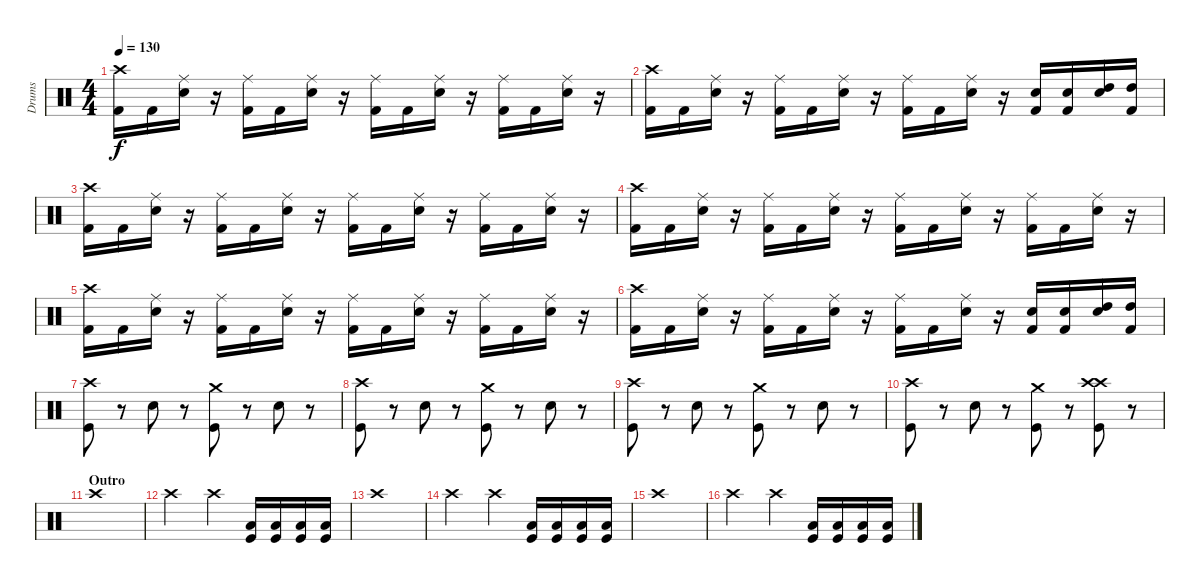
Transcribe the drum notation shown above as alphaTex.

\track ("Drums" "Drums") {instrument percussion}
\staff {score}
\articulation defaults
\ts (4 4)
\tempo 130
\clef neutral
\ks c
("Crash high (hit)" "Kick (hit) 2").16{dy f} "Kick (hit) 2".16 ("Ride (middle)" "Snare (hit) 2").16 r.16 ("Ride (middle)" "Kick (hit) 2").16 "Kick (hit) 2".16 ("Ride (middle)" "Snare (hit) 2").16 r.16 ("Ride (middle)" "Kick (hit) 2").16 "Kick (hit) 2".16 ("Ride (middle)" "Snare (hit) 2").16 r.16 ("Ride (middle)" "Kick (hit) 2").16 "Kick (hit) 2".16 ("Ride (middle)" "Snare (hit) 2").16 r.16 |
("Crash high (hit)" "Kick (hit) 2").16 "Kick (hit) 2".16 ("Ride (middle)" "Snare (hit) 2").16 r.16 ("Ride (middle)" "Kick (hit) 2").16 "Kick (hit) 2".16 ("Ride (middle)" "Snare (hit) 2").16 r.16 ("Ride (middle)" "Kick (hit) 2").16 "Kick (hit) 2".16 ("Ride (middle)" "Snare (hit) 2").16 r.16 ("Electric Snare (hit)" "Kick (hit) 2").16 ("Electric Snare (hit)" "Kick (hit) 2").16 ("High Tom (hit)" "Snare (hit) 2").16 ("High Tom (hit)" "Kick (hit) 2").16 |
("Crash high (hit)" "Kick (hit) 2").16 "Kick (hit) 2".16 ("Ride (middle)" "Snare (hit) 2").16 r.16 ("Ride (middle)" "Kick (hit) 2").16 "Kick (hit) 2".16 ("Ride (middle)" "Snare (hit) 2").16 r.16 ("Ride (middle)" "Kick (hit) 2").16 "Kick (hit) 2".16 ("Ride (middle)" "Snare (hit) 2").16 r.16 ("Ride (middle)" "Kick (hit) 2").16 "Kick (hit) 2".16 ("Ride (middle)" "Snare (hit) 2").16 r.16 |
("Crash high (hit)" "Kick (hit) 2").16 "Kick (hit) 2".16 ("Ride (middle)" "Snare (hit) 2").16 r.16 ("Ride (middle)" "Kick (hit) 2").16 "Kick (hit) 2".16 ("Ride (middle)" "Snare (hit) 2").16 r.16 ("Ride (middle)" "Kick (hit) 2").16 "Kick (hit) 2".16 ("Ride (middle)" "Snare (hit) 2").16 r.16 ("Ride (middle)" "Kick (hit) 2").16 "Kick (hit) 2".16 ("Ride (middle)" "Snare (hit) 2").16 r.16 |
("Crash high (hit)" "Kick (hit) 2").16 "Kick (hit) 2".16 ("Ride (middle)" "Snare (hit) 2").16 r.16 ("Ride (middle)" "Kick (hit) 2").16 "Kick (hit) 2".16 ("Ride (middle)" "Snare (hit) 2").16 r.16 ("Ride (middle)" "Kick (hit) 2").16 "Kick (hit) 2".16 ("Ride (middle)" "Snare (hit) 2").16 r.16 ("Ride (middle)" "Kick (hit) 2").16 "Kick (hit) 2".16 ("Ride (middle)" "Snare (hit) 2").16 r.16 |
("Crash high (hit)" "Kick (hit) 2").16 "Kick (hit) 2".16 ("Ride (middle)" "Snare (hit) 2").16 r.16 ("Ride (middle)" "Kick (hit) 2").16 "Kick (hit) 2".16 ("Ride (middle)" "Snare (hit) 2").16 r.16 ("Ride (middle)" "Kick (hit) 2").16 "Kick (hit) 2".16 ("Ride (middle)" "Snare (hit) 2").16 r.16 ("Electric Snare (hit)" "Kick (hit) 2").16 ("Electric Snare (hit)" "Kick (hit) 2").16 ("High Tom (hit)" "Snare (hit) 2").16 ("High Tom (hit)" "Kick (hit) 2").16 |
("Crash high (hit)" "Kick (hit)").8 r.8 "Electric Snare (hit)".8 r.8 ("Crash medium (hit)" "Kick (hit)").8 r.8 "Electric Snare (hit)".8 r.8 |
("Crash high (hit)" "Kick (hit)").8 r.8 "Electric Snare (hit)".8 r.8 ("Crash medium (hit)" "Kick (hit)").8 r.8 "Electric Snare (hit)".8 r.8 |
("Crash high (hit)" "Kick (hit)").8 r.8 "Electric Snare (hit)".8 r.8 ("Crash medium (hit)" "Kick (hit)").8 r.8 "Electric Snare (hit)".8 r.8 |
("Crash high (hit)" "Kick (hit)").8 r.8 "Electric Snare (hit)".8 r.8 ("Crash medium (hit)" "Kick (hit)").8 r.8 ("Crash high (hit)" "Crash high (hit)" "Kick (hit)").8 r.8 |
\section ("" "Outro")
"Crash high (hit)".1 |
"Crash high (hit)".2 "Crash high (hit)".4 ("Low Tom (hit)" "Kick (hit)").16 ("Low Tom (hit)" "Kick (hit)").16 ("Low Tom (hit)" "Kick (hit)").16 ("Low Tom (hit)" "Kick (hit)").16 |
"Crash high (hit)".1 |
"Crash high (hit)".2 "Crash high (hit)".4 ("Low Tom (hit)" "Kick (hit)").16 ("Low Tom (hit)" "Kick (hit)").16 ("Low Tom (hit)" "Kick (hit)").16 ("Low Tom (hit)" "Kick (hit)").16 |
"Crash high (hit)".1 |
"Crash high (hit)".2 "Crash high (hit)".4 ("Low Tom (hit)" "Kick (hit)").16 ("Low Tom (hit)" "Kick (hit)").16 ("Low Tom (hit)" "Kick (hit)").16 ("Low Tom (hit)" "Kick (hit)").16
